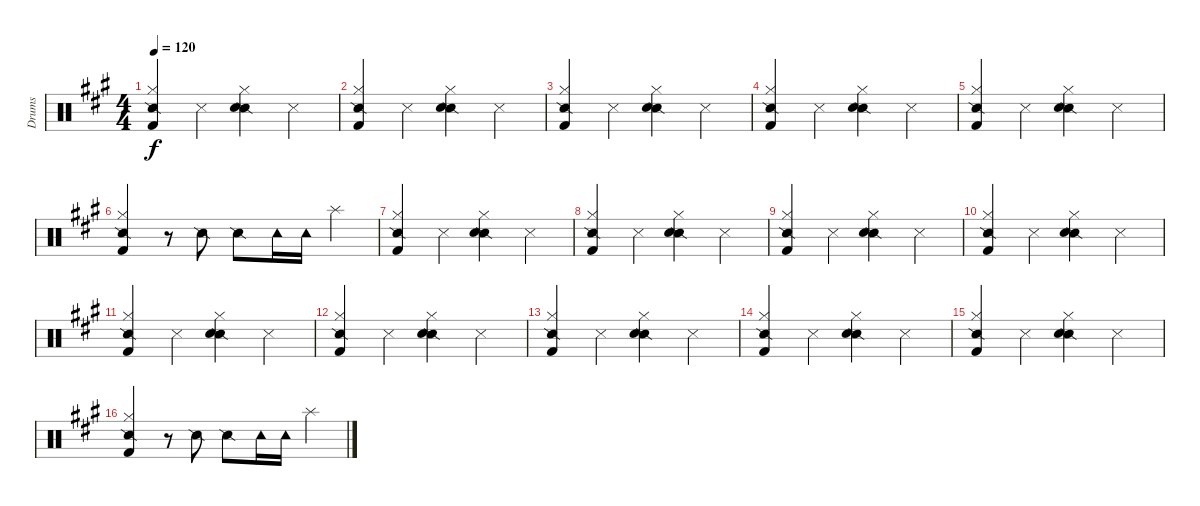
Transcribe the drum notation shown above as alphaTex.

\track ("Drums" "Drums") {instrument percussion}
\staff {score}
\articulation defaults
\ts (4 4)
\tempo 120
\clef neutral
\ks a
("Snare (side stick) 2" "Hi-Hat (closed)" "Kick (hit) 2").4{dy f} "Snare (side stick) 3".4 ("Snare (side stick) 2" "Hi-Hat (closed)" "Electric Snare (hit)").4 "Snare (side stick) 3".4 |
("Snare (side stick) 2" "Hi-Hat (closed)" "Kick (hit) 2").4 "Snare (side stick) 3".4 ("Snare (side stick) 2" "Hi-Hat (closed)" "Electric Snare (hit)").4 "Snare (side stick) 3".4 |
("Snare (side stick) 2" "Hi-Hat (closed)" "Kick (hit) 2").4 "Snare (side stick) 3".4 ("Snare (side stick) 2" "Hi-Hat (closed)" "Electric Snare (hit)").4 "Snare (side stick) 3".4 |
("Snare (side stick) 2" "Hi-Hat (closed)" "Kick (hit) 2").4 "Snare (side stick) 3".4 ("Snare (side stick) 2" "Hi-Hat (closed)" "Electric Snare (hit)").4 "Snare (side stick) 3".4 |
("Snare (side stick) 2" "Hi-Hat (closed)" "Kick (hit) 2").4 "Snare (side stick) 3".4 ("Snare (side stick) 2" "Hi-Hat (closed)" "Electric Snare (hit)").4 "Snare (side stick) 3".4 |
("Snare (side stick) 2" "Hi-Hat (closed)" "Kick (hit) 2").4 r.8 "Snare (side stick) 2".8 "Snare (side stick) 2".8 "Tambourine (hit)".16 "Tambourine (hit)".16 "Splash (hit)".4 |
("Snare (side stick) 2" "Hi-Hat (closed)" "Kick (hit) 2").4 "Snare (side stick) 3".4 ("Snare (side stick) 2" "Hi-Hat (closed)" "Electric Snare (hit)").4 "Snare (side stick) 3".4 |
("Snare (side stick) 2" "Hi-Hat (closed)" "Kick (hit) 2").4 "Snare (side stick) 3".4 ("Snare (side stick) 2" "Hi-Hat (closed)" "Electric Snare (hit)").4 "Snare (side stick) 3".4 |
("Snare (side stick) 2" "Hi-Hat (closed)" "Kick (hit) 2").4 "Snare (side stick) 3".4 ("Snare (side stick) 2" "Hi-Hat (closed)" "Electric Snare (hit)").4 "Snare (side stick) 3".4 |
("Snare (side stick) 2" "Hi-Hat (closed)" "Kick (hit) 2").4 "Snare (side stick) 3".4 ("Snare (side stick) 2" "Hi-Hat (closed)" "Electric Snare (hit)").4 "Snare (side stick) 3".4 |
("Snare (side stick) 2" "Hi-Hat (closed)" "Kick (hit) 2").4 "Snare (side stick) 3".4 ("Snare (side stick) 2" "Hi-Hat (closed)" "Electric Snare (hit)").4 "Snare (side stick) 3".4 |
("Snare (side stick) 2" "Hi-Hat (closed)" "Kick (hit) 2").4 "Snare (side stick) 3".4 ("Snare (side stick) 2" "Hi-Hat (closed)" "Electric Snare (hit)").4 "Snare (side stick) 3".4 |
("Snare (side stick) 2" "Hi-Hat (closed)" "Kick (hit) 2").4 "Snare (side stick) 3".4 ("Snare (side stick) 2" "Hi-Hat (closed)" "Electric Snare (hit)").4 "Snare (side stick) 3".4 |
("Snare (side stick) 2" "Hi-Hat (closed)" "Kick (hit) 2").4 "Snare (side stick) 3".4 ("Snare (side stick) 2" "Hi-Hat (closed)" "Electric Snare (hit)").4 "Snare (side stick) 3".4 |
("Snare (side stick) 2" "Hi-Hat (closed)" "Kick (hit) 2").4 "Snare (side stick) 3".4 ("Snare (side stick) 2" "Hi-Hat (closed)" "Electric Snare (hit)").4 "Snare (side stick) 3".4 |
("Snare (side stick) 2" "Hi-Hat (closed)" "Kick (hit) 2").4 r.8 "Snare (side stick) 2".8 "Snare (side stick) 2".8 "Tambourine (hit)".16 "Tambourine (hit)".16 "Splash (hit)".4
